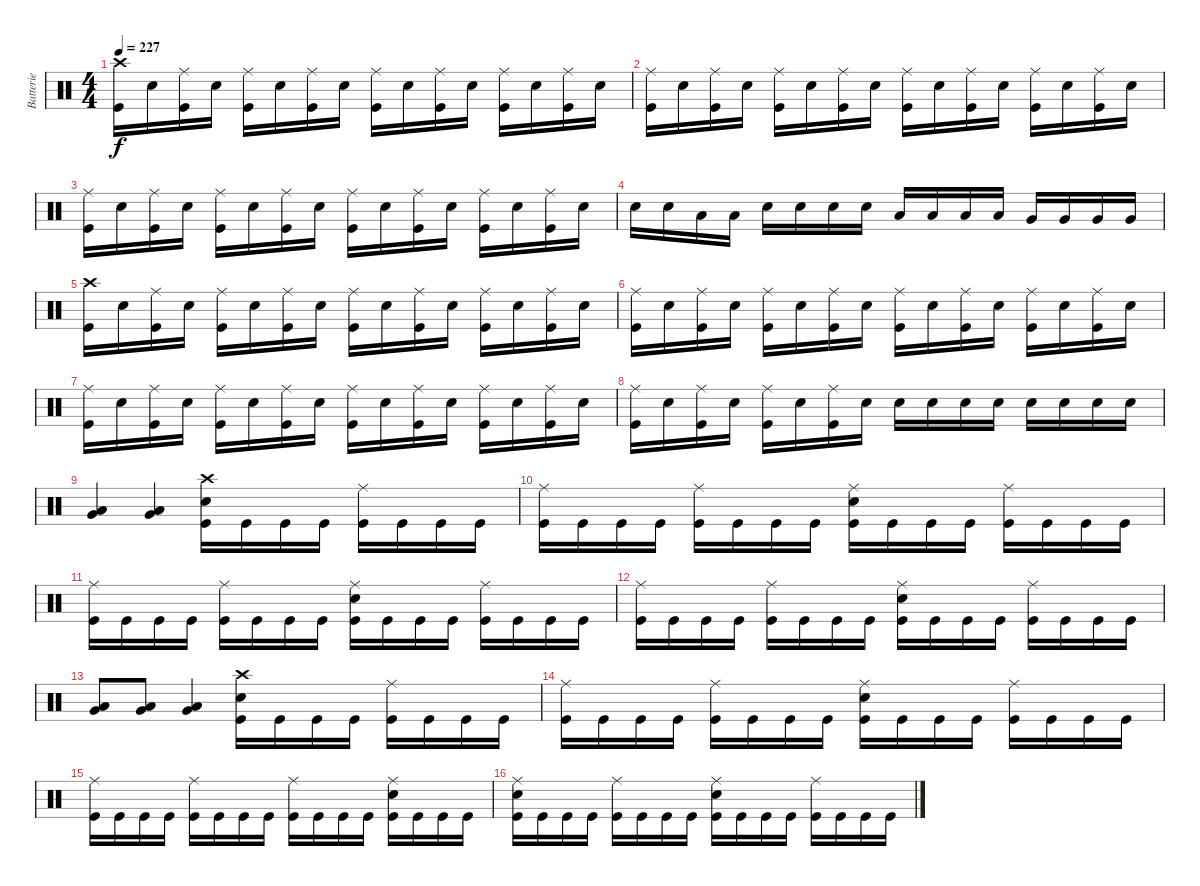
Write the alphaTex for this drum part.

\track ("Batterie" "Batterie") {instrument percussion}
\staff {score}
\articulation defaults
\ts (4 4)
\tempo 227
\clef neutral
\ks c
("Crash high (hit)" "Kick (hit)").16{dy f} "Electric Snare (hit)".16 ("Ride (middle)" "Kick (hit)").16 "Electric Snare (hit)".16 ("Ride (middle)" "Kick (hit)").16 "Electric Snare (hit)".16 ("Ride (middle)" "Kick (hit)").16 "Electric Snare (hit)".16 ("Ride (middle)" "Kick (hit)").16 "Electric Snare (hit)".16 ("Ride (middle)" "Kick (hit)").16 "Electric Snare (hit)".16 ("Ride (middle)" "Kick (hit)").16 "Electric Snare (hit)".16 ("Ride (middle)" "Kick (hit)").16 "Electric Snare (hit)".16 |
("Ride (middle)" "Kick (hit)").16 "Electric Snare (hit)".16 ("Ride (middle)" "Kick (hit)").16 "Electric Snare (hit)".16 ("Ride (middle)" "Kick (hit)").16 "Electric Snare (hit)".16 ("Ride (middle)" "Kick (hit)").16 "Electric Snare (hit)".16 ("Ride (middle)" "Kick (hit)").16 "Electric Snare (hit)".16 ("Ride (middle)" "Kick (hit)").16 "Electric Snare (hit)".16 ("Ride (middle)" "Kick (hit)").16 "Electric Snare (hit)".16 ("Ride (middle)" "Kick (hit)").16 "Electric Snare (hit)".16 |
("Ride (middle)" "Kick (hit)").16 "Electric Snare (hit)".16 ("Ride (middle)" "Kick (hit)").16 "Electric Snare (hit)".16 ("Ride (middle)" "Kick (hit)").16 "Electric Snare (hit)".16 ("Ride (middle)" "Kick (hit)").16 "Electric Snare (hit)".16 ("Ride (middle)" "Kick (hit)").16 "Electric Snare (hit)".16 ("Ride (middle)" "Kick (hit)").16 "Electric Snare (hit)".16 ("Ride (middle)" "Kick (hit)").16 "Electric Snare (hit)".16 ("Ride (middle)" "Kick (hit)").16 "Electric Snare (hit)".16 |
"Electric Snare (hit)".16 "Electric Snare (hit)".16 "Low Tom (hit)".16 "Low Tom (hit)".16 "Electric Snare (hit)".16 "Electric Snare (hit)".16 "Electric Snare (hit)".16 "Electric Snare (hit)".16 "Low Tom (hit)".16 "Low Tom (hit)".16 "Low Tom (hit)".16 "Low Tom (hit)".16 "Very Low Tom (hit)".16 "Very Low Tom (hit)".16 "Very Low Tom (hit)".16 "Very Low Tom (hit)".16 |
("Crash high (hit)" "Kick (hit)").16 "Electric Snare (hit)".16 ("Ride (middle)" "Kick (hit)").16 "Electric Snare (hit)".16 ("Ride (middle)" "Kick (hit)").16 "Electric Snare (hit)".16 ("Ride (middle)" "Kick (hit)").16 "Electric Snare (hit)".16 ("Ride (middle)" "Kick (hit)").16 "Electric Snare (hit)".16 ("Ride (middle)" "Kick (hit)").16 "Electric Snare (hit)".16 ("Ride (middle)" "Kick (hit)").16 "Electric Snare (hit)".16 ("Ride (middle)" "Kick (hit)").16 "Electric Snare (hit)".16 |
("Ride (middle)" "Kick (hit)").16 "Electric Snare (hit)".16 ("Ride (middle)" "Kick (hit)").16 "Electric Snare (hit)".16 ("Ride (middle)" "Kick (hit)").16 "Electric Snare (hit)".16 ("Ride (middle)" "Kick (hit)").16 "Electric Snare (hit)".16 ("Ride (middle)" "Kick (hit)").16 "Electric Snare (hit)".16 ("Ride (middle)" "Kick (hit)").16 "Electric Snare (hit)".16 ("Ride (middle)" "Kick (hit)").16 "Electric Snare (hit)".16 ("Ride (middle)" "Kick (hit)").16 "Electric Snare (hit)".16 |
("Ride (middle)" "Kick (hit)").16 "Electric Snare (hit)".16 ("Ride (middle)" "Kick (hit)").16 "Electric Snare (hit)".16 ("Ride (middle)" "Kick (hit)").16 "Electric Snare (hit)".16 ("Ride (middle)" "Kick (hit)").16 "Electric Snare (hit)".16 ("Ride (middle)" "Kick (hit)").16 "Electric Snare (hit)".16 ("Ride (middle)" "Kick (hit)").16 "Electric Snare (hit)".16 ("Ride (middle)" "Kick (hit)").16 "Electric Snare (hit)".16 ("Ride (middle)" "Kick (hit)").16 "Electric Snare (hit)".16 |
("Ride (middle)" "Kick (hit)").16 "Electric Snare (hit)".16 ("Ride (middle)" "Kick (hit)").16 "Electric Snare (hit)".16 ("Ride (middle)" "Kick (hit)").16 "Electric Snare (hit)".16 ("Ride (middle)" "Kick (hit)").16 "Electric Snare (hit)".16 "Electric Snare (hit)".16 "Electric Snare (hit)".16 "Electric Snare (hit)".16 "Electric Snare (hit)".16 "Electric Snare (hit)".16 "Electric Snare (hit)".16 "Electric Snare (hit)".16 "Electric Snare (hit)".16 |
("Low Tom (hit)" "Very Low Tom (hit)").4{bu 60} ("Low Tom (hit)" "Very Low Tom (hit)").4{bu 60} ("Crash high (hit)" "Electric Snare (hit)" "Kick (hit)").16 "Kick (hit)".16 "Kick (hit)".16 "Kick (hit)".16 ("Ride (middle)" "Kick (hit)").16 "Kick (hit)".16 "Kick (hit)".16 "Kick (hit)".16 |
("Ride (middle)" "Kick (hit)").16 "Kick (hit)".16 "Kick (hit)".16 "Kick (hit)".16 ("Ride (middle)" "Kick (hit)").16 "Kick (hit)".16 "Kick (hit)".16 "Kick (hit)".16 ("Ride (middle)" "Electric Snare (hit)" "Kick (hit)").16 "Kick (hit)".16 "Kick (hit)".16 "Kick (hit)".16 ("Ride (middle)" "Kick (hit)").16 "Kick (hit)".16 "Kick (hit)".16 "Kick (hit)".16 |
("Ride (middle)" "Kick (hit)").16 "Kick (hit)".16 "Kick (hit)".16 "Kick (hit)".16 ("Ride (middle)" "Kick (hit)").16 "Kick (hit)".16 "Kick (hit)".16 "Kick (hit)".16 ("Ride (middle)" "Electric Snare (hit)" "Kick (hit)").16 "Kick (hit)".16 "Kick (hit)".16 "Kick (hit)".16 ("Ride (middle)" "Kick (hit)").16 "Kick (hit)".16 "Kick (hit)".16 "Kick (hit)".16 |
("Ride (middle)" "Kick (hit)").16 "Kick (hit)".16 "Kick (hit)".16 "Kick (hit)".16 ("Ride (middle)" "Kick (hit)").16 "Kick (hit)".16 "Kick (hit)".16 "Kick (hit)".16 ("Ride (middle)" "Electric Snare (hit)" "Kick (hit)").16 "Kick (hit)".16 "Kick (hit)".16 "Kick (hit)".16 ("Ride (middle)" "Kick (hit)").16 "Kick (hit)".16 "Kick (hit)".16 "Kick (hit)".16 |
("Low Tom (hit)" "Very Low Tom (hit)").8 ("Low Tom (hit)" "Very Low Tom (hit)").8 ("Low Tom (hit)" "Very Low Tom (hit)").4 ("Crash high (hit)" "Electric Snare (hit)" "Kick (hit)").16 "Kick (hit)".16 "Kick (hit)".16 "Kick (hit)".16 ("Ride (middle)" "Kick (hit)").16 "Kick (hit)".16 "Kick (hit)".16 "Kick (hit)".16 |
("Ride (middle)" "Kick (hit)").16 "Kick (hit)".16 "Kick (hit)".16 "Kick (hit)".16 ("Ride (middle)" "Kick (hit)").16 "Kick (hit)".16 "Kick (hit)".16 "Kick (hit)".16 ("Ride (middle)" "Electric Snare (hit)" "Kick (hit)").16 "Kick (hit)".16 "Kick (hit)".16 "Kick (hit)".16 ("Ride (middle)" "Kick (hit)").16 "Kick (hit)".16 "Kick (hit)".16 "Kick (hit)".16 |
("Ride (middle)" "Kick (hit)").16 "Kick (hit)".16 "Kick (hit)".16 "Kick (hit)".16 ("Ride (middle)" "Kick (hit)").16 "Kick (hit)".16 "Kick (hit)".16 "Kick (hit)".16 ("Ride (middle)" "Kick (hit)").16 "Kick (hit)".16 "Kick (hit)".16 "Kick (hit)".16 ("Ride (middle)" "Electric Snare (hit)" "Kick (hit)").16 "Kick (hit)".16 "Kick (hit)".16 "Kick (hit)".16 |
("Ride (middle)" "Electric Snare (hit)" "Kick (hit)").16 "Kick (hit)".16 "Kick (hit)".16 "Kick (hit)".16 ("Ride (middle)" "Kick (hit)").16 "Kick (hit)".16 "Kick (hit)".16 "Kick (hit)".16 ("Ride (middle)" "Electric Snare (hit)" "Kick (hit)").16 "Kick (hit)".16 "Kick (hit)".16 "Kick (hit)".16 ("Ride (middle)" "Kick (hit)").16 "Kick (hit)".16 "Kick (hit)".16 "Kick (hit)".16
